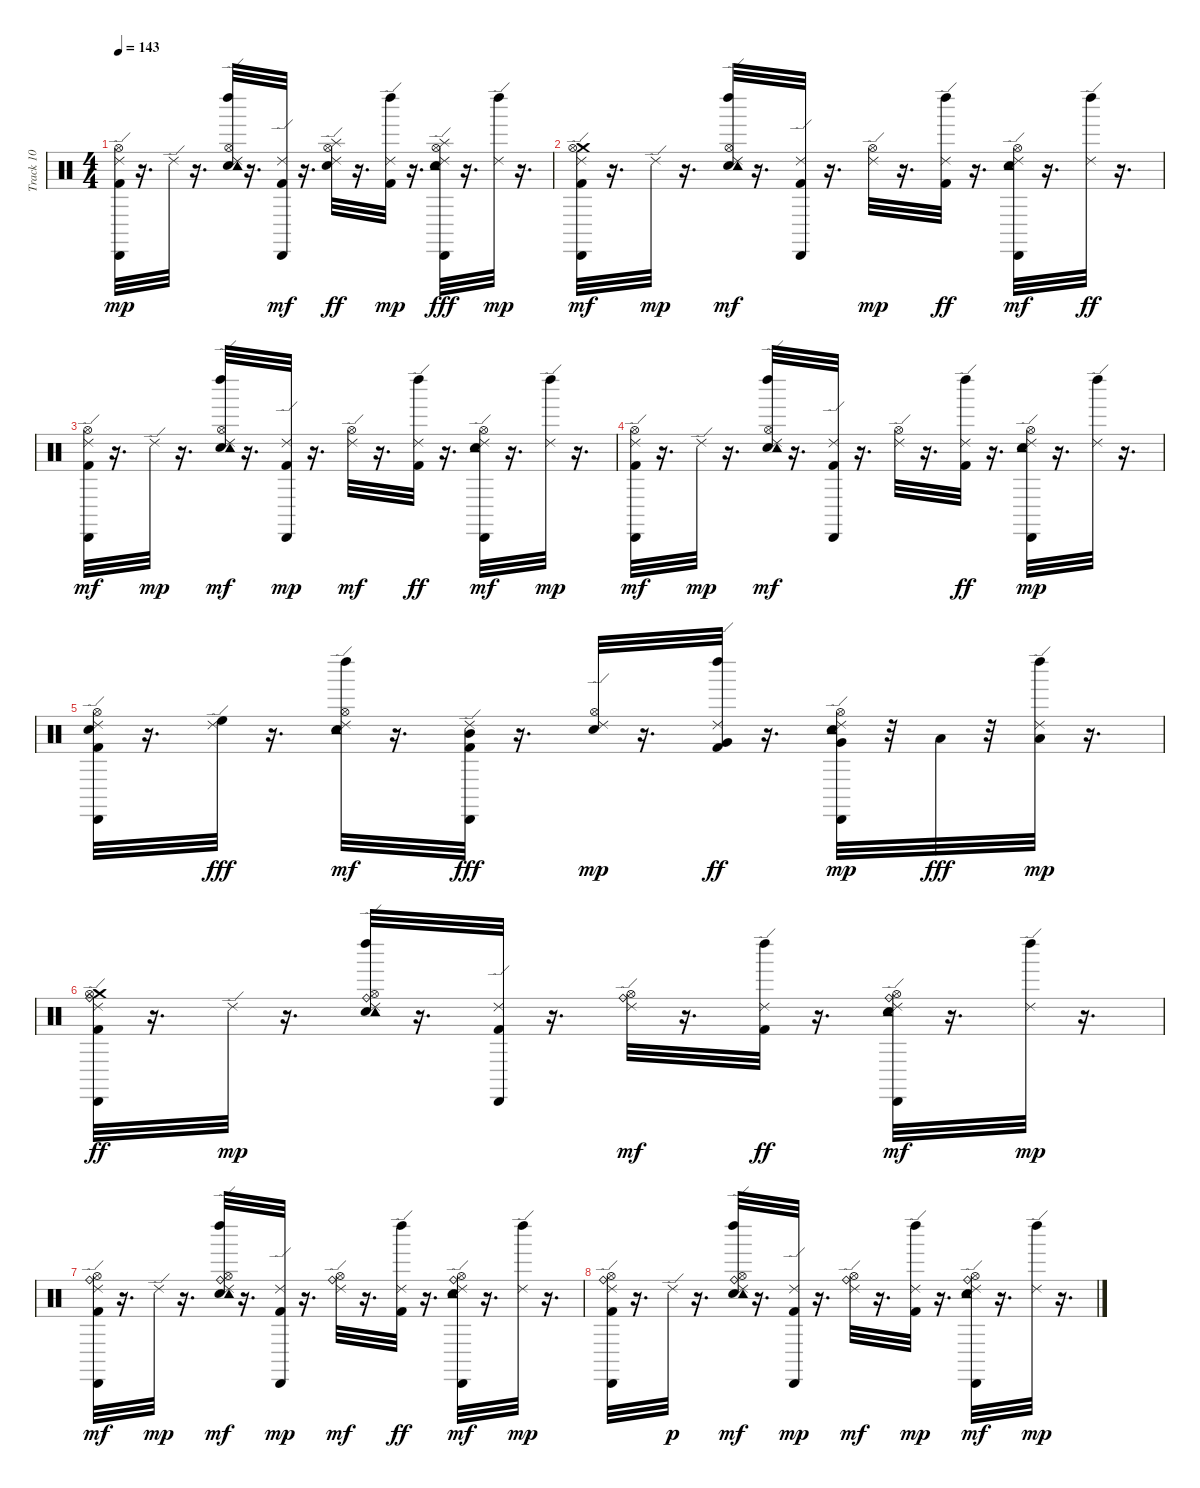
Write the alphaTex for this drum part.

\track ("Track 10" "Track 10") {instrument percussion}
\staff {score}
\articulation defaults
\ts (4 4)
\tempo 143
\clef neutral
\ks c
("Kick (hit) 2" "Ride (edge) 2" "Cabasa (hit)" "Hi-Hat (open)").32{dy mp} r.16{d} "Ride (edge) 2".32 r.16{d} ("Snare (hit) 2" "Ride (edge) 2" "Tambourine (hit)" "Left Maraca (hit)" "Hi-Hat (open)").32 r.16{d} ("Kick (hit) 2" "Ride (edge) 2" "Cabasa (hit)").32{dy mf} r.16{d} ("Snare (hit) 2" "Ride (edge) 2" "Hi-Hat (open)" "Splash (hit)").32{dy ff} r.16{d} ("Kick (hit) 2" "Ride (edge) 2" "Left Maraca (hit)").32{dy mp} r.16{d} ("Snare (hit) 2" "Ride (edge) 2" "Tambourine (hit)" "Cabasa (hit)" "Hi-Hat (open)" "Splash (hit)").32{dy fff} r.16{d} ("Ride (edge) 2" "Left Maraca (hit)").32{dy mp} r.16{d} |
("Kick (hit) 2" "Ride (edge) 2" "Crash medium (hit)" "Cabasa (hit)" "Hi-Hat (open)").32{dy mf} r.16{d} "Ride (edge) 2".32{dy mp} r.16{d} ("Snare (hit) 2" "Ride (edge) 2" "Tambourine (hit)" "Left Maraca (hit)" "Hi-Hat (open)").32{dy mf} r.16{d} ("Kick (hit) 2" "Ride (edge) 2" "Cabasa (hit)").32 r.16{d} ("Ride (edge) 2" "Hi-Hat (open)").32{dy mp} r.16{d} ("Kick (hit) 2" "Ride (edge) 2" "Left Maraca (hit)").32{dy ff} r.16{d} ("Snare (hit) 2" "Ride (edge) 2" "Tambourine (hit)" "Cabasa (hit)" "Hi-Hat (open)").32{dy mf} r.16{d} ("Ride (edge) 2" "Left Maraca (hit)").32{dy ff} r.16{d} |
("Kick (hit) 2" "Ride (edge) 2" "Cabasa (hit)" "Hi-Hat (open)").32{dy mf} r.16{d} "Ride (edge) 2".32{dy mp} r.16{d} ("Snare (hit) 2" "Ride (edge) 2" "Tambourine (hit)" "Left Maraca (hit)" "Hi-Hat (open)").32{dy mf} r.16{d} ("Kick (hit) 2" "Ride (edge) 2" "Cabasa (hit)").32{dy mp} r.16{d} ("Ride (edge) 2" "Hi-Hat (open)").32{dy mf} r.16{d} ("Kick (hit) 2" "Ride (edge) 2" "Left Maraca (hit)").32{dy ff} r.16{d} ("Snare (hit) 2" "Ride (edge) 2" "Tambourine (hit)" "Cabasa (hit)" "Hi-Hat (open)").32{dy mf} r.16{d} ("Ride (edge) 2" "Left Maraca (hit)").32{dy mp} r.16{d} |
("Kick (hit) 2" "Ride (edge) 2" "Cabasa (hit)" "Hi-Hat (open)").32{dy mf} r.16{d} "Ride (edge) 2".32{dy mp} r.16{d} ("Snare (hit) 2" "Ride (edge) 2" "Tambourine (hit)" "Left Maraca (hit)" "Hi-Hat (open)").32{dy mf} r.16{d} ("Kick (hit) 2" "Ride (edge) 2" "Cabasa (hit)").32 r.16{d} ("Ride (edge) 2" "Hi-Hat (open)").32 r.16{d} ("Kick (hit) 2" "Ride (edge) 2" "Left Maraca (hit)").32{dy ff} r.16{d} ("Snare (hit) 2" "Ride (edge) 2" "Tambourine (hit)" "Cabasa (hit)" "Hi-Hat (open)").32{dy mp} r.16{d} ("Ride (edge) 2" "Left Maraca (hit)").32 r.16{d} |
("Kick (hit) 2" "Ride (edge) 2" "Snare (hit) 2" "Cabasa (hit)" "Hi-Hat (open)").32 r.16{d} ("Ride (edge) 2" "High Floor Tom (hit)").32{dy fff} r.16{d} ("Snare (hit) 2" "Ride (edge) 2" "Tambourine (hit)" "Left Maraca (hit)" "Hi-Hat (open)").32{dy mf} r.16{d} ("Kick (hit) 2" "Ride (edge) 2" "Cabasa (hit)" "Mid Tom (hit)").32{dy fff} r.16{d} ("Snare (hit) 2" "Ride (edge) 2" "Hi-Hat (open)").32{dy mp} r.16{d} ("Kick (hit) 2" "Ride (edge) 2" "Left Maraca (hit)" "Very Low Tom (hit)").32{dy ff} r.16{d} ("Snare (hit) 2" "Ride (edge) 2" "Tambourine (hit)" "Cabasa (hit)" "Very Low Tom (hit)" "Hi-Hat (open)").32{dy mp} r.32 "Low Floor Tom (hit)".32{dy fff} r.32 ("Ride (edge) 2" "Left Maraca (hit)" "Low Floor Tom (hit)").32{dy mp} r.16{d} |
("Kick (hit) 2" "Ride (edge) 2" "Crash medium (hit)" "Cabasa (hit)" "Hi-Hat (open)" "Ride (bell)").32{dy ff} r.16{d} "Ride (edge) 2".32{dy mp} r.16{d} ("Snare (hit) 2" "Ride (edge) 2" "Tambourine (hit)" "Left Maraca (hit)" "Hi-Hat (open)" "Ride (bell)").32 r.16{d} ("Kick (hit) 2" "Ride (edge) 2" "Cabasa (hit)").32 r.16{d} ("Ride (edge) 2" "Hi-Hat (open)" "Ride (bell)").32{dy mf} r.16{d} ("Kick (hit) 2" "Ride (edge) 2" "Left Maraca (hit)").32{dy ff} r.16{d} ("Snare (hit) 2" "Ride (edge) 2" "Tambourine (hit)" "Cabasa (hit)" "Hi-Hat (open)" "Ride (bell)").32{dy mf} r.16{d} ("Ride (edge) 2" "Left Maraca (hit)").32{dy mp} r.16{d} |
("Kick (hit) 2" "Ride (edge) 2" "Cabasa (hit)" "Hi-Hat (open)" "Ride (bell)").32{dy mf} r.16{d} "Ride (edge) 2".32{dy mp} r.16{d} ("Snare (hit) 2" "Ride (edge) 2" "Tambourine (hit)" "Left Maraca (hit)" "Hi-Hat (open)" "Ride (bell)").32{dy mf} r.16{d} ("Kick (hit) 2" "Ride (edge) 2" "Cabasa (hit)").32{dy mp} r.16{d} ("Ride (edge) 2" "Hi-Hat (open)" "Ride (bell)").32{dy mf} r.16{d} ("Kick (hit) 2" "Ride (edge) 2" "Left Maraca (hit)").32{dy ff} r.16{d} ("Snare (hit) 2" "Ride (edge) 2" "Tambourine (hit)" "Cabasa (hit)" "Hi-Hat (open)" "Ride (bell)").32{dy mf} r.16{d} ("Ride (edge) 2" "Left Maraca (hit)").32{dy mp} r.16{d} |
("Kick (hit) 2" "Ride (edge) 2" "Cabasa (hit)" "Hi-Hat (open)" "Ride (bell)").32 r.16{d} "Ride (edge) 2".32{dy p} r.16{d} ("Snare (hit) 2" "Ride (edge) 2" "Tambourine (hit)" "Left Maraca (hit)" "Hi-Hat (open)" "Ride (bell)").32{dy mf} r.16{d} ("Kick (hit) 2" "Ride (edge) 2" "Cabasa (hit)").32{dy mp} r.16{d} ("Ride (edge) 2" "Hi-Hat (open)" "Ride (bell)").32{dy mf} r.16{d} ("Kick (hit) 2" "Ride (edge) 2" "Left Maraca (hit)").32{dy mp} r.16{d} ("Snare (hit) 2" "Ride (edge) 2" "Tambourine (hit)" "Cabasa (hit)" "Hi-Hat (open)" "Ride (bell)").32{dy mf} r.16{d} ("Ride (edge) 2" "Left Maraca (hit)").32{dy mp} r.16{d}
